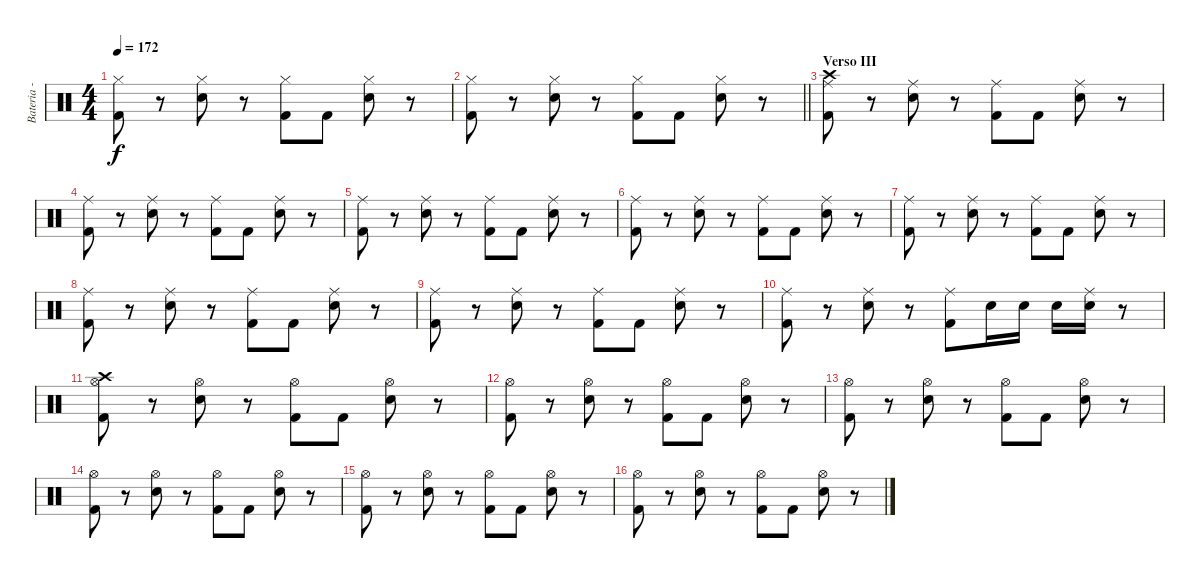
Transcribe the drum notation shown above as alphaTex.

\track ("Bateria - Larzon" "Bateria - ") {instrument percussion}
\staff {score}
\articulation defaults
\ts (4 4)
\tempo 172
\clef neutral
\ks c
("Kick (hit) 2" "Hi-Hat (closed)").8{dy f} r.8 ("Snare (hit) 2" "Hi-Hat (closed)").8 r.8 ("Kick (hit) 2" "Hi-Hat (closed)").8 "Kick (hit) 2".8 ("Snare (hit) 2" "Hi-Hat (closed)").8 r.8 |
\barLineRight lightlight
("Kick (hit) 2" "Hi-Hat (closed)").8 r.8 ("Snare (hit) 2" "Hi-Hat (closed)").8 r.8 ("Kick (hit) 2" "Hi-Hat (closed)").8 "Kick (hit) 2".8 ("Snare (hit) 2" "Hi-Hat (closed)").8 r.8 |
\section ("" "Verso III")
("Kick (hit) 2" "Ride (middle)" "Crash high (hit)").8 r.8 ("Snare (hit) 2" "Ride (middle)").8 r.8 ("Kick (hit) 2" "Ride (middle)").8 "Kick (hit) 2".8 ("Snare (hit) 2" "Ride (middle)").8 r.8 |
("Kick (hit) 2" "Ride (middle)").8 r.8 ("Snare (hit) 2" "Ride (middle)").8 r.8 ("Kick (hit) 2" "Ride (middle)").8 "Kick (hit) 2".8 ("Snare (hit) 2" "Ride (middle)").8 r.8 |
("Kick (hit) 2" "Ride (middle)").8 r.8 ("Snare (hit) 2" "Ride (middle)").8 r.8 ("Kick (hit) 2" "Ride (middle)").8 "Kick (hit) 2".8 ("Snare (hit) 2" "Ride (middle)").8 r.8 |
("Kick (hit) 2" "Ride (middle)").8 r.8 ("Snare (hit) 2" "Ride (middle)").8 r.8 ("Kick (hit) 2" "Ride (middle)").8 "Kick (hit) 2".8 ("Snare (hit) 2" "Ride (middle)").8 r.8 |
("Kick (hit) 2" "Ride (middle)").8 r.8 ("Snare (hit) 2" "Ride (middle)").8 r.8 ("Kick (hit) 2" "Ride (middle)").8 "Kick (hit) 2".8 ("Snare (hit) 2" "Ride (middle)").8 r.8 |
("Kick (hit) 2" "Ride (middle)").8 r.8 ("Snare (hit) 2" "Ride (middle)").8 r.8 ("Kick (hit) 2" "Ride (middle)").8 "Kick (hit) 2".8 ("Snare (hit) 2" "Ride (middle)").8 r.8 |
("Kick (hit) 2" "Ride (middle)").8 r.8 ("Snare (hit) 2" "Ride (middle)").8 r.8 ("Kick (hit) 2" "Ride (middle)").8 "Kick (hit) 2".8 ("Snare (hit) 2" "Ride (middle)").8 r.8 |
("Kick (hit) 2" "Ride (middle)").8 r.8 ("Snare (hit) 2" "Ride (middle)").8 r.8 ("Kick (hit) 2" "Ride (middle)").8 "Snare (hit) 2".16 "Snare (hit) 2".16 "Snare (hit) 2".16 ("Snare (hit) 2" "Ride (middle)").16 r.8 |
("Kick (hit) 2" "Hi-Hat (open)" "Crash high (hit)").8 r.8 ("Snare (hit) 2" "Hi-Hat (open)").8 r.8 ("Kick (hit) 2" "Hi-Hat (open)").8 "Kick (hit) 2".8 ("Snare (hit) 2" "Hi-Hat (open)").8 r.8 |
("Kick (hit) 2" "Hi-Hat (open)").8 r.8 ("Snare (hit) 2" "Hi-Hat (open)").8 r.8 ("Kick (hit) 2" "Hi-Hat (open)").8 "Kick (hit) 2".8 ("Snare (hit) 2" "Hi-Hat (open)").8 r.8 |
("Kick (hit) 2" "Hi-Hat (open)").8 r.8 ("Snare (hit) 2" "Hi-Hat (open)").8 r.8 ("Kick (hit) 2" "Hi-Hat (open)").8 "Kick (hit) 2".8 ("Snare (hit) 2" "Hi-Hat (open)").8 r.8 |
("Kick (hit) 2" "Hi-Hat (open)").8 r.8 ("Snare (hit) 2" "Hi-Hat (open)").8 r.8 ("Kick (hit) 2" "Hi-Hat (open)").8 "Kick (hit) 2".8 ("Snare (hit) 2" "Hi-Hat (open)").8 r.8 |
("Kick (hit) 2" "Hi-Hat (open)").8 r.8 ("Snare (hit) 2" "Hi-Hat (open)").8 r.8 ("Kick (hit) 2" "Hi-Hat (open)").8 "Kick (hit) 2".8 ("Snare (hit) 2" "Hi-Hat (open)").8 r.8 |
("Kick (hit) 2" "Hi-Hat (open)").8 r.8 ("Snare (hit) 2" "Hi-Hat (open)").8 r.8 ("Kick (hit) 2" "Hi-Hat (open)").8 "Kick (hit) 2".8 ("Snare (hit) 2" "Hi-Hat (open)").8 r.8
